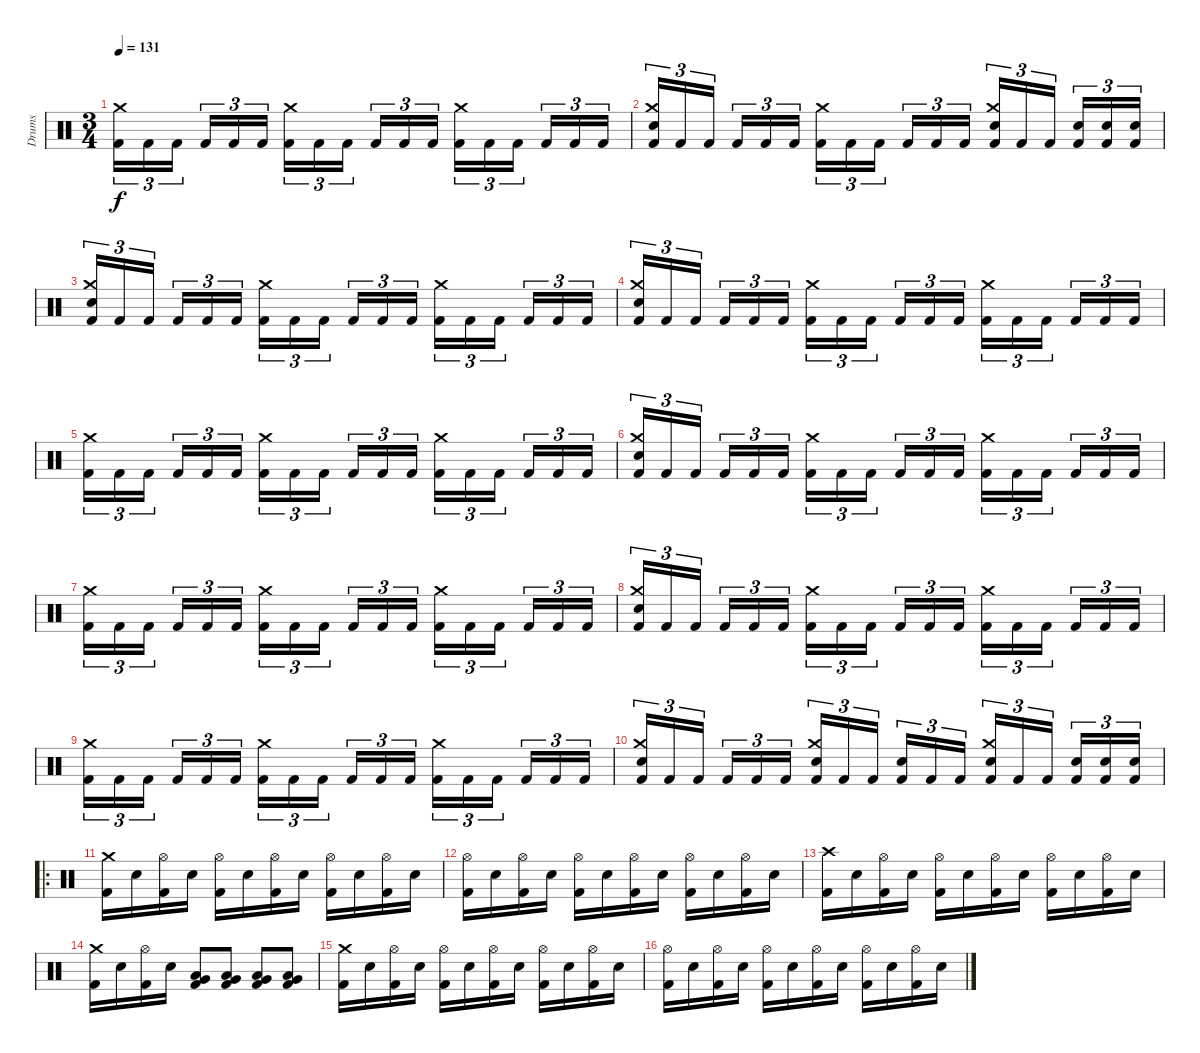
\track ("Drums" "Drums") {instrument percussion}
\staff {score}
\articulation defaults
\ts (3 4)
\tempo 131
\clef neutral
\ks c
("Kick (hit) 2" "Crash medium (hit)").16{tu (3 2) dy f} "Kick (hit) 2".16{tu (3 2)} "Kick (hit) 2".16{tu (3 2)} "Kick (hit) 2".16{tu (3 2)} "Kick (hit) 2".16{tu (3 2)} "Kick (hit) 2".16{tu (3 2)} ("Kick (hit) 2" "Crash medium (hit)").16{tu (3 2)} "Kick (hit) 2".16{tu (3 2)} "Kick (hit) 2".16{tu (3 2)} "Kick (hit) 2".16{tu (3 2)} "Kick (hit) 2".16{tu (3 2)} "Kick (hit) 2".16{tu (3 2)} ("Kick (hit) 2" "Crash medium (hit)").16{tu (3 2)} "Kick (hit) 2".16{tu (3 2)} "Kick (hit) 2".16{tu (3 2)} "Kick (hit) 2".16{tu (3 2)} "Kick (hit) 2".16{tu (3 2)} "Kick (hit) 2".16{tu (3 2)} |
("Kick (hit) 2" "Electric Snare (hit)" "Crash medium (hit)").16{tu (3 2)} "Kick (hit) 2".16{tu (3 2)} "Kick (hit) 2".16{tu (3 2)} "Kick (hit) 2".16{tu (3 2)} "Kick (hit) 2".16{tu (3 2)} "Kick (hit) 2".16{tu (3 2)} ("Kick (hit) 2" "Crash medium (hit)").16{tu (3 2)} "Kick (hit) 2".16{tu (3 2)} "Kick (hit) 2".16{tu (3 2)} "Kick (hit) 2".16{tu (3 2)} "Kick (hit) 2".16{tu (3 2)} "Kick (hit) 2".16{tu (3 2)} ("Kick (hit) 2" "Electric Snare (hit)" "Crash medium (hit)").16{tu (3 2)} "Kick (hit) 2".16{tu (3 2)} "Kick (hit) 2".16{tu (3 2)} ("Kick (hit) 2" "Electric Snare (hit)").16{tu (3 2)} ("Kick (hit) 2" "Electric Snare (hit)").16{tu (3 2)} ("Kick (hit) 2" "Electric Snare (hit)").16{tu (3 2)} |
("Kick (hit) 2" "Electric Snare (hit)" "Crash medium (hit)").16{tu (3 2)} "Kick (hit) 2".16{tu (3 2)} "Kick (hit) 2".16{tu (3 2)} "Kick (hit) 2".16{tu (3 2)} "Kick (hit) 2".16{tu (3 2)} "Kick (hit) 2".16{tu (3 2)} ("Kick (hit) 2" "Crash medium (hit)").16{tu (3 2)} "Kick (hit) 2".16{tu (3 2)} "Kick (hit) 2".16{tu (3 2)} "Kick (hit) 2".16{tu (3 2)} "Kick (hit) 2".16{tu (3 2)} "Kick (hit) 2".16{tu (3 2)} ("Kick (hit) 2" "Crash medium (hit)").16{tu (3 2)} "Kick (hit) 2".16{tu (3 2)} "Kick (hit) 2".16{tu (3 2)} "Kick (hit) 2".16{tu (3 2)} "Kick (hit) 2".16{tu (3 2)} "Kick (hit) 2".16{tu (3 2)} |
("Kick (hit) 2" "Electric Snare (hit)" "Crash medium (hit)").16{tu (3 2)} "Kick (hit) 2".16{tu (3 2)} "Kick (hit) 2".16{tu (3 2)} "Kick (hit) 2".16{tu (3 2)} "Kick (hit) 2".16{tu (3 2)} "Kick (hit) 2".16{tu (3 2)} ("Kick (hit) 2" "Crash medium (hit)").16{tu (3 2)} "Kick (hit) 2".16{tu (3 2)} "Kick (hit) 2".16{tu (3 2)} "Kick (hit) 2".16{tu (3 2)} "Kick (hit) 2".16{tu (3 2)} "Kick (hit) 2".16{tu (3 2)} ("Kick (hit) 2" "Crash medium (hit)").16{tu (3 2)} "Kick (hit) 2".16{tu (3 2)} "Kick (hit) 2".16{tu (3 2)} "Kick (hit) 2".16{tu (3 2)} "Kick (hit) 2".16{tu (3 2)} "Kick (hit) 2".16{tu (3 2)} |
("Kick (hit) 2" "Crash medium (hit)").16{tu (3 2)} "Kick (hit) 2".16{tu (3 2)} "Kick (hit) 2".16{tu (3 2)} "Kick (hit) 2".16{tu (3 2)} "Kick (hit) 2".16{tu (3 2)} "Kick (hit) 2".16{tu (3 2)} ("Kick (hit) 2" "Crash medium (hit)").16{tu (3 2)} "Kick (hit) 2".16{tu (3 2)} "Kick (hit) 2".16{tu (3 2)} "Kick (hit) 2".16{tu (3 2)} "Kick (hit) 2".16{tu (3 2)} "Kick (hit) 2".16{tu (3 2)} ("Kick (hit) 2" "Crash medium (hit)").16{tu (3 2)} "Kick (hit) 2".16{tu (3 2)} "Kick (hit) 2".16{tu (3 2)} "Kick (hit) 2".16{tu (3 2)} "Kick (hit) 2".16{tu (3 2)} "Kick (hit) 2".16{tu (3 2)} |
("Kick (hit) 2" "Electric Snare (hit)" "Crash medium (hit)").16{tu (3 2)} "Kick (hit) 2".16{tu (3 2)} "Kick (hit) 2".16{tu (3 2)} "Kick (hit) 2".16{tu (3 2)} "Kick (hit) 2".16{tu (3 2)} "Kick (hit) 2".16{tu (3 2)} ("Kick (hit) 2" "Crash medium (hit)").16{tu (3 2)} "Kick (hit) 2".16{tu (3 2)} "Kick (hit) 2".16{tu (3 2)} "Kick (hit) 2".16{tu (3 2)} "Kick (hit) 2".16{tu (3 2)} "Kick (hit) 2".16{tu (3 2)} ("Kick (hit) 2" "Crash medium (hit)").16{tu (3 2)} "Kick (hit) 2".16{tu (3 2)} "Kick (hit) 2".16{tu (3 2)} "Kick (hit) 2".16{tu (3 2)} "Kick (hit) 2".16{tu (3 2)} "Kick (hit) 2".16{tu (3 2)} |
("Kick (hit) 2" "Crash medium (hit)").16{tu (3 2)} "Kick (hit) 2".16{tu (3 2)} "Kick (hit) 2".16{tu (3 2)} "Kick (hit) 2".16{tu (3 2)} "Kick (hit) 2".16{tu (3 2)} "Kick (hit) 2".16{tu (3 2)} ("Kick (hit) 2" "Crash medium (hit)").16{tu (3 2)} "Kick (hit) 2".16{tu (3 2)} "Kick (hit) 2".16{tu (3 2)} "Kick (hit) 2".16{tu (3 2)} "Kick (hit) 2".16{tu (3 2)} "Kick (hit) 2".16{tu (3 2)} ("Kick (hit) 2" "Crash medium (hit)").16{tu (3 2)} "Kick (hit) 2".16{tu (3 2)} "Kick (hit) 2".16{tu (3 2)} "Kick (hit) 2".16{tu (3 2)} "Kick (hit) 2".16{tu (3 2)} "Kick (hit) 2".16{tu (3 2)} |
("Kick (hit) 2" "Electric Snare (hit)" "Crash medium (hit)").16{tu (3 2)} "Kick (hit) 2".16{tu (3 2)} "Kick (hit) 2".16{tu (3 2)} "Kick (hit) 2".16{tu (3 2)} "Kick (hit) 2".16{tu (3 2)} "Kick (hit) 2".16{tu (3 2)} ("Kick (hit) 2" "Crash medium (hit)").16{tu (3 2)} "Kick (hit) 2".16{tu (3 2)} "Kick (hit) 2".16{tu (3 2)} "Kick (hit) 2".16{tu (3 2)} "Kick (hit) 2".16{tu (3 2)} "Kick (hit) 2".16{tu (3 2)} ("Kick (hit) 2" "Crash medium (hit)").16{tu (3 2)} "Kick (hit) 2".16{tu (3 2)} "Kick (hit) 2".16{tu (3 2)} "Kick (hit) 2".16{tu (3 2)} "Kick (hit) 2".16{tu (3 2)} "Kick (hit) 2".16{tu (3 2)} |
("Kick (hit) 2" "Crash medium (hit)").16{tu (3 2)} "Kick (hit) 2".16{tu (3 2)} "Kick (hit) 2".16{tu (3 2)} "Kick (hit) 2".16{tu (3 2)} "Kick (hit) 2".16{tu (3 2)} "Kick (hit) 2".16{tu (3 2)} ("Kick (hit) 2" "Crash medium (hit)").16{tu (3 2)} "Kick (hit) 2".16{tu (3 2)} "Kick (hit) 2".16{tu (3 2)} "Kick (hit) 2".16{tu (3 2)} "Kick (hit) 2".16{tu (3 2)} "Kick (hit) 2".16{tu (3 2)} ("Kick (hit) 2" "Crash medium (hit)").16{tu (3 2)} "Kick (hit) 2".16{tu (3 2)} "Kick (hit) 2".16{tu (3 2)} "Kick (hit) 2".16{tu (3 2)} "Kick (hit) 2".16{tu (3 2)} "Kick (hit) 2".16{tu (3 2)} |
("Kick (hit) 2" "Electric Snare (hit)" "Crash medium (hit)").16{tu (3 2)} "Kick (hit) 2".16{tu (3 2)} "Kick (hit) 2".16{tu (3 2)} "Kick (hit) 2".16{tu (3 2)} "Kick (hit) 2".16{tu (3 2)} "Kick (hit) 2".16{tu (3 2)} ("Kick (hit) 2" "Electric Snare (hit)" "Crash medium (hit)").16{tu (3 2)} "Kick (hit) 2".16{tu (3 2)} "Kick (hit) 2".16{tu (3 2)} ("Kick (hit) 2" "Electric Snare (hit)").16{tu (3 2)} "Kick (hit) 2".16{tu (3 2)} "Kick (hit) 2".16{tu (3 2)} ("Kick (hit) 2" "Electric Snare (hit)" "Crash medium (hit)").16{tu (3 2)} "Kick (hit) 2".16{tu (3 2)} "Kick (hit) 2".16{tu (3 2)} ("Kick (hit) 2" "Electric Snare (hit)").16{tu (3 2)} ("Kick (hit) 2" "Electric Snare (hit)").16{tu (3 2)} ("Kick (hit) 2" "Electric Snare (hit)").16{tu (3 2)} |
\ro
("Kick (hit) 2" "Crash medium (hit)").16 "Electric Snare (hit)".16 ("Kick (hit) 2" "Hi-Hat (open)").16 "Electric Snare (hit)".16 ("Kick (hit) 2" "Hi-Hat (open)").16 "Electric Snare (hit)".16 ("Kick (hit) 2" "Hi-Hat (open)").16 "Electric Snare (hit)".16 ("Kick (hit) 2" "Hi-Hat (open)").16 "Electric Snare (hit)".16 ("Kick (hit) 2" "Hi-Hat (open)").16 "Electric Snare (hit)".16 |
("Kick (hit) 2" "Hi-Hat (open)").16 "Electric Snare (hit)".16 ("Kick (hit) 2" "Hi-Hat (open)").16 "Electric Snare (hit)".16 ("Kick (hit) 2" "Hi-Hat (open)").16 "Electric Snare (hit)".16 ("Kick (hit) 2" "Hi-Hat (open)").16 "Electric Snare (hit)".16 ("Kick (hit) 2" "Hi-Hat (open)").16 "Electric Snare (hit)".16 ("Kick (hit) 2" "Hi-Hat (open)").16 "Electric Snare (hit)".16 |
("Kick (hit) 2" "Crash high (hit)").16 "Electric Snare (hit)".16 ("Kick (hit) 2" "Hi-Hat (open)").16 "Electric Snare (hit)".16 ("Kick (hit) 2" "Hi-Hat (open)").16 "Electric Snare (hit)".16 ("Kick (hit) 2" "Hi-Hat (open)").16 "Electric Snare (hit)".16 ("Kick (hit) 2" "Hi-Hat (open)").16 "Electric Snare (hit)".16 ("Kick (hit) 2" "Hi-Hat (open)").16 "Electric Snare (hit)".16 |
("Kick (hit) 2" "Crash medium (hit)").16 "Electric Snare (hit)".16 ("Kick (hit) 2" "Hi-Hat (open)").16 "Electric Snare (hit)".16 ("Kick (hit) 2" "Low Tom (hit)" "Very Low Tom (hit)").8 ("Kick (hit) 2" "Low Tom (hit)" "Very Low Tom (hit)").8 ("Kick (hit) 2" "Low Tom (hit)" "Very Low Tom (hit)").8 ("Kick (hit) 2" "Low Tom (hit)" "Very Low Tom (hit)").8 |
("Kick (hit) 2" "Crash medium (hit)").16 "Electric Snare (hit)".16 ("Kick (hit) 2" "Hi-Hat (open)").16 "Electric Snare (hit)".16 ("Kick (hit) 2" "Hi-Hat (open)").16 "Electric Snare (hit)".16 ("Kick (hit) 2" "Hi-Hat (open)").16 "Electric Snare (hit)".16 ("Kick (hit) 2" "Hi-Hat (open)").16 "Electric Snare (hit)".16 ("Kick (hit) 2" "Hi-Hat (open)").16 "Electric Snare (hit)".16 |
("Kick (hit) 2" "Hi-Hat (open)").16 "Electric Snare (hit)".16 ("Kick (hit) 2" "Hi-Hat (open)").16 "Electric Snare (hit)".16 ("Kick (hit) 2" "Hi-Hat (open)").16 "Electric Snare (hit)".16 ("Kick (hit) 2" "Hi-Hat (open)").16 "Electric Snare (hit)".16 ("Kick (hit) 2" "Hi-Hat (open)").16 "Electric Snare (hit)".16 ("Kick (hit) 2" "Hi-Hat (open)").16 "Electric Snare (hit)".16
